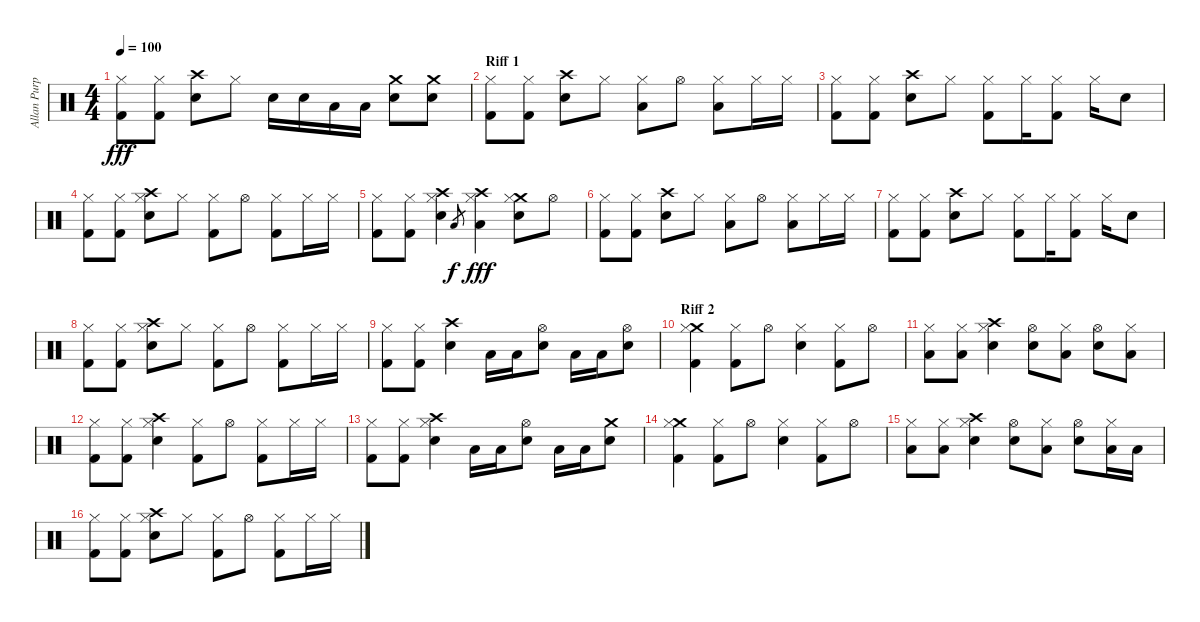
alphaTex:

\track ("Allan Purple" "Allan Purp") {instrument percussion}
\staff {score}
\articulation defaults
\ts (4 4)
\tempo 100
\clef neutral
\ks c
("Hi-Hat (closed)" "Kick (hit) 2").8{dy fff} ("Hi-Hat (closed)" "Kick (hit) 2").8 ("Crash high (hit)" "Snare (hit) 2").8 "Hi-Hat (closed)".8 "Electric Snare (hit)".16 "Electric Snare (hit)".16 "Low Tom (hit)".16 "Low Tom (hit)".16 ("Crash medium (hit)" "Electric Snare (hit)").8 ("Crash medium (hit)" "Snare (hit) 2").8 |
\section ("" "Riff 1")
("Hi-Hat (closed)" "Kick (hit) 2").8 ("Hi-Hat (closed)" "Kick (hit) 2").8 ("Crash high (hit)" "Snare (hit) 2").8 "Hi-Hat (closed)".8 ("Hi-Hat (closed)" "Low Tom (hit)").8 "Hi-Hat (open)".8 ("Hi-Hat (closed)" "Low Tom (hit)").8 "Hi-Hat (closed)".16 "Hi-Hat (closed)".16 |
("Hi-Hat (closed)" "Kick (hit) 2").8 ("Hi-Hat (closed)" "Kick (hit) 2").8 ("Crash high (hit)" "Snare (hit) 2").8 "Hi-Hat (closed)".8 ("Hi-Hat (closed)" "Kick (hit) 2").8 "Hi-Hat (closed)".16 ("Hi-Hat (closed)" "Kick (hit) 2").8 "Hi-Hat (closed)".16 "Electric Snare (hit)".8 |
("Hi-Hat (closed)" "Kick (hit) 2").8 ("Hi-Hat (closed)" "Kick (hit) 2").8 ("Crash high (hit)" "Hi-Hat (closed)" "Snare (hit) 2").8 "Hi-Hat (closed)".8 ("Hi-Hat (closed)" "Kick (hit) 2").8 "Hi-Hat (open)".8 ("Hi-Hat (closed)" "Kick (hit) 2").8 "Hi-Hat (closed)".16 "Hi-Hat (closed)".16 |
("Hi-Hat (closed)" "Kick (hit) 2").8 ("Hi-Hat (closed)" "Kick (hit) 2").8 ("Crash high (hit)" "Hi-Hat (closed)" "Snare (hit) 2").4 "Low Tom (hit)".8{gr dy f} ("Crash high (hit)" "Hi-Hat (closed)" "Low Tom (hit)").4{dy fff} ("Crash medium (hit)" "Hi-Hat (closed)" "Electric Snare (hit)").8 "Hi-Hat (open)".8 |
("Hi-Hat (closed)" "Kick (hit) 2").8 ("Hi-Hat (closed)" "Kick (hit) 2").8 ("Crash high (hit)" "Snare (hit) 2").8 "Hi-Hat (closed)".8 ("Hi-Hat (closed)" "Low Tom (hit)").8 "Hi-Hat (open)".8 ("Hi-Hat (closed)" "Low Tom (hit)").8 "Hi-Hat (closed)".16 "Hi-Hat (closed)".16 |
("Hi-Hat (closed)" "Kick (hit) 2").8 ("Hi-Hat (closed)" "Kick (hit) 2").8 ("Crash high (hit)" "Snare (hit) 2").8 "Hi-Hat (closed)".8 ("Hi-Hat (closed)" "Kick (hit) 2").8 "Hi-Hat (closed)".16 ("Hi-Hat (closed)" "Kick (hit) 2").8 "Hi-Hat (closed)".16 "Electric Snare (hit)".8 |
("Hi-Hat (closed)" "Kick (hit) 2").8 ("Hi-Hat (closed)" "Kick (hit) 2").8 ("Crash high (hit)" "Hi-Hat (closed)" "Snare (hit) 2").8 "Hi-Hat (closed)".8 ("Hi-Hat (closed)" "Kick (hit) 2").8 "Hi-Hat (open)".8 ("Hi-Hat (closed)" "Kick (hit) 2").8 "Hi-Hat (closed)".16 "Hi-Hat (closed)".16 |
("Hi-Hat (closed)" "Kick (hit) 2").8 ("Hi-Hat (closed)" "Kick (hit) 2").8 ("Crash high (hit)" "Snare (hit) 2").4 "Low Tom (hit)".16 "Low Tom (hit)".16 ("Hi-Hat (open)" "Electric Snare (hit)").8 "Low Tom (hit)".16 "Low Tom (hit)".16 ("Hi-Hat (open)" "Electric Snare (hit)").8 |
\section ("" "Riff 2")
("Crash medium (hit)" "Hi-Hat (closed)" "Kick (hit) 2").4 ("Hi-Hat (closed)" "Kick (hit) 2").8 "Hi-Hat (open)".8 ("Hi-Hat (closed)" "Snare (hit) 2").4 ("Hi-Hat (closed)" "Kick (hit) 2").8 "Hi-Hat (open)".8 |
("Hi-Hat (closed)" "Low Tom (hit)").8 ("Hi-Hat (closed)" "Low Tom (hit)").8 ("Crash high (hit)" "Hi-Hat (closed)" "Electric Snare (hit)").4 ("Hi-Hat (open)" "Electric Snare (hit)").8 ("Hi-Hat (closed)" "Low Tom (hit)").8 ("Hi-Hat (open)" "Electric Snare (hit)").8 ("Hi-Hat (closed)" "Low Tom (hit)").8 |
("Hi-Hat (closed)" "Kick (hit) 2").8 ("Hi-Hat (closed)" "Kick (hit) 2").8 ("Crash high (hit)" "Hi-Hat (closed)" "Snare (hit) 2").4 ("Hi-Hat (closed)" "Kick (hit) 2").8 "Hi-Hat (open)".8 ("Hi-Hat (closed)" "Kick (hit) 2").8 "Hi-Hat (closed)".16 "Hi-Hat (closed)".16 |
("Hi-Hat (closed)" "Kick (hit) 2").8 ("Hi-Hat (closed)" "Kick (hit) 2").8 ("Crash high (hit)" "Hi-Hat (closed)" "Snare (hit) 2").4 "Low Tom (hit)".16 "Low Tom (hit)".16 ("Hi-Hat (open)" "Electric Snare (hit)").8 "Low Tom (hit)".16 "Low Tom (hit)".16 ("Crash medium (hit)" "Electric Snare (hit)").8 |
("Crash medium (hit)" "Hi-Hat (closed)" "Kick (hit) 2").4 ("Hi-Hat (closed)" "Kick (hit) 2").8 "Hi-Hat (open)".8 ("Hi-Hat (closed)" "Snare (hit) 2").4 ("Hi-Hat (closed)" "Kick (hit) 2").8 "Hi-Hat (open)".8 |
("Hi-Hat (closed)" "Low Tom (hit)").8 ("Hi-Hat (closed)" "Low Tom (hit)").8 ("Crash high (hit)" "Hi-Hat (closed)" "Electric Snare (hit)").4 ("Hi-Hat (open)" "Electric Snare (hit)").8 ("Hi-Hat (closed)" "Low Tom (hit)").8 ("Hi-Hat (open)" "Electric Snare (hit)").8 ("Hi-Hat (closed)" "Low Tom (hit)").16 "Low Tom (hit)".16 |
("Hi-Hat (closed)" "Kick (hit) 2").8 ("Hi-Hat (closed)" "Kick (hit) 2").8 ("Crash high (hit)" "Hi-Hat (closed)" "Snare (hit) 2").8 "Hi-Hat (closed)".8 ("Hi-Hat (closed)" "Kick (hit) 2").8 "Hi-Hat (open)".8 ("Hi-Hat (closed)" "Kick (hit) 2").8 "Hi-Hat (closed)".16 "Hi-Hat (closed)".16
